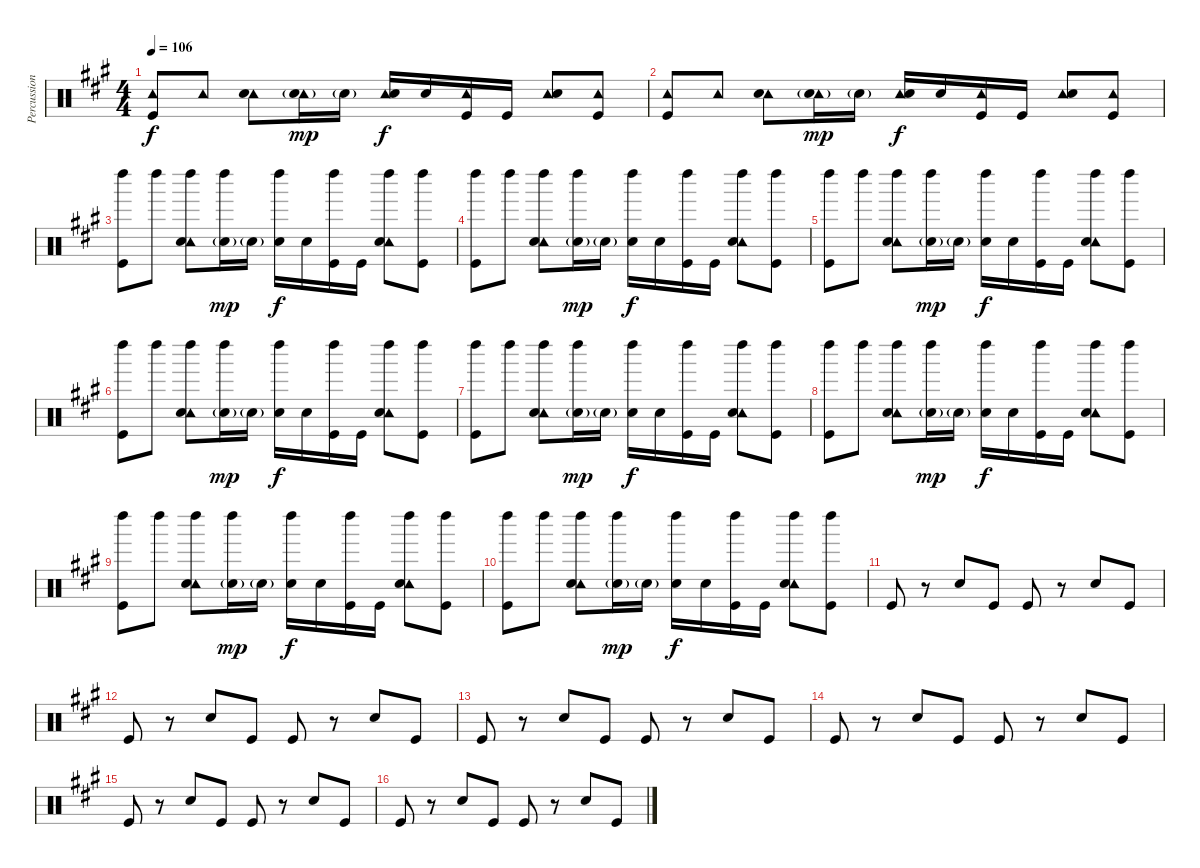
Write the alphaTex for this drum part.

\track ("Percussion" "Percussion") {instrument percussion}
\staff {score}
\articulation defaults
\ts (4 4)
\tempo 106
\clef neutral
\ks f#minor
("Tambourine (hit)" "Kick (hit)").8{dy f} "Tambourine (hit)".8 ("Tambourine (hit)" "Snare (hit) 2").8 ("Tambourine (hit)" "Snare (hit) 2"{g}).16{dy mp} "Snare (hit) 2"{g}.16 ("Tambourine (hit)" "Snare (hit) 2").16{dy f} "Snare (hit) 2".16 ("Tambourine (hit)" "Kick (hit)").16 "Kick (hit)".16 ("Tambourine (hit)" "Snare (hit) 2").8 ("Tambourine (hit)" "Kick (hit)").8 |
("Tambourine (hit)" "Kick (hit)").8 "Tambourine (hit)".8 ("Tambourine (hit)" "Snare (hit) 2").8 ("Tambourine (hit)" "Snare (hit) 2"{g}).16{dy mp} "Snare (hit) 2"{g}.16 ("Tambourine (hit)" "Snare (hit) 2").16{dy f} "Snare (hit) 2".16 ("Tambourine (hit)" "Kick (hit)").16 "Kick (hit)".16 ("Tambourine (hit)" "Snare (hit) 2").8 ("Tambourine (hit)" "Kick (hit)").8 |
("Left Maraca (hit)" "Kick (hit)").8 "Left Maraca (hit)".8 ("Tambourine (hit)" "Left Maraca (hit)" "Snare (hit) 2").8 ("Left Maraca (hit)" "Snare (hit) 2"{g}).16{dy mp} "Snare (hit) 2"{g}.16 ("Left Maraca (hit)" "Snare (hit) 2").16{dy f} "Snare (hit) 2".16 ("Left Maraca (hit)" "Kick (hit)").16 "Kick (hit)".16 ("Tambourine (hit)" "Left Maraca (hit)" "Snare (hit) 2").8 ("Left Maraca (hit)" "Kick (hit)").8 |
("Left Maraca (hit)" "Kick (hit)").8 "Left Maraca (hit)".8 ("Tambourine (hit)" "Left Maraca (hit)" "Snare (hit) 2").8 ("Left Maraca (hit)" "Snare (hit) 2"{g}).16{dy mp} "Snare (hit) 2"{g}.16 ("Left Maraca (hit)" "Snare (hit) 2").16{dy f} "Snare (hit) 2".16 ("Left Maraca (hit)" "Kick (hit)").16 "Kick (hit)".16 ("Tambourine (hit)" "Left Maraca (hit)" "Snare (hit) 2").8 ("Left Maraca (hit)" "Kick (hit)").8 |
("Left Maraca (hit)" "Kick (hit)").8 "Left Maraca (hit)".8 ("Tambourine (hit)" "Left Maraca (hit)" "Snare (hit) 2").8 ("Left Maraca (hit)" "Snare (hit) 2"{g}).16{dy mp} "Snare (hit) 2"{g}.16 ("Left Maraca (hit)" "Snare (hit) 2").16{dy f} "Snare (hit) 2".16 ("Left Maraca (hit)" "Kick (hit)").16 "Kick (hit)".16 ("Tambourine (hit)" "Left Maraca (hit)" "Snare (hit) 2").8 ("Left Maraca (hit)" "Kick (hit)").8 |
("Left Maraca (hit)" "Kick (hit)").8 "Left Maraca (hit)".8 ("Tambourine (hit)" "Left Maraca (hit)" "Snare (hit) 2").8 ("Left Maraca (hit)" "Snare (hit) 2"{g}).16{dy mp} "Snare (hit) 2"{g}.16 ("Left Maraca (hit)" "Snare (hit) 2").16{dy f} "Snare (hit) 2".16 ("Left Maraca (hit)" "Kick (hit)").16 "Kick (hit)".16 ("Tambourine (hit)" "Left Maraca (hit)" "Snare (hit) 2").8 ("Left Maraca (hit)" "Kick (hit)").8 |
("Left Maraca (hit)" "Kick (hit)").8 "Left Maraca (hit)".8 ("Tambourine (hit)" "Left Maraca (hit)" "Snare (hit) 2").8 ("Left Maraca (hit)" "Snare (hit) 2"{g}).16{dy mp} "Snare (hit) 2"{g}.16 ("Left Maraca (hit)" "Snare (hit) 2").16{dy f} "Snare (hit) 2".16 ("Left Maraca (hit)" "Kick (hit)").16 "Kick (hit)".16 ("Tambourine (hit)" "Left Maraca (hit)" "Snare (hit) 2").8 ("Left Maraca (hit)" "Kick (hit)").8 |
("Left Maraca (hit)" "Kick (hit)").8 "Left Maraca (hit)".8 ("Tambourine (hit)" "Left Maraca (hit)" "Snare (hit) 2").8 ("Left Maraca (hit)" "Snare (hit) 2"{g}).16{dy mp} "Snare (hit) 2"{g}.16 ("Left Maraca (hit)" "Snare (hit) 2").16{dy f} "Snare (hit) 2".16 ("Left Maraca (hit)" "Kick (hit)").16 "Kick (hit)".16 ("Tambourine (hit)" "Left Maraca (hit)" "Snare (hit) 2").8 ("Left Maraca (hit)" "Kick (hit)").8 |
("Left Maraca (hit)" "Kick (hit)").8 "Left Maraca (hit)".8 ("Tambourine (hit)" "Left Maraca (hit)" "Snare (hit) 2").8 ("Left Maraca (hit)" "Snare (hit) 2"{g}).16{dy mp} "Snare (hit) 2"{g}.16 ("Left Maraca (hit)" "Snare (hit) 2").16{dy f} "Snare (hit) 2".16 ("Left Maraca (hit)" "Kick (hit)").16 "Kick (hit)".16 ("Tambourine (hit)" "Left Maraca (hit)" "Snare (hit) 2").8 ("Left Maraca (hit)" "Kick (hit)").8 |
("Left Maraca (hit)" "Kick (hit)").8 "Left Maraca (hit)".8 ("Tambourine (hit)" "Left Maraca (hit)" "Snare (hit) 2").8 ("Left Maraca (hit)" "Snare (hit) 2"{g}).16{dy mp} "Snare (hit) 2"{g}.16 ("Left Maraca (hit)" "Snare (hit) 2").16{dy f} "Snare (hit) 2".16 ("Left Maraca (hit)" "Kick (hit)").16 "Kick (hit)".16 ("Tambourine (hit)" "Left Maraca (hit)" "Snare (hit) 2").8 ("Left Maraca (hit)" "Kick (hit)").8 |
"Kick (hit)".8 r.8 "Snare (hit) 2".8 "Kick (hit)".8 "Kick (hit)".8 r.8 "Snare (hit) 2".8 "Kick (hit)".8 |
"Kick (hit)".8 r.8 "Snare (hit) 2".8 "Kick (hit)".8 "Kick (hit)".8 r.8 "Snare (hit) 2".8 "Kick (hit)".8 |
"Kick (hit)".8 r.8 "Snare (hit) 2".8 "Kick (hit)".8 "Kick (hit)".8 r.8 "Snare (hit) 2".8 "Kick (hit)".8 |
"Kick (hit)".8 r.8 "Snare (hit) 2".8 "Kick (hit)".8 "Kick (hit)".8 r.8 "Snare (hit) 2".8 "Kick (hit)".8 |
"Kick (hit)".8 r.8 "Snare (hit) 2".8 "Kick (hit)".8 "Kick (hit)".8 r.8 "Snare (hit) 2".8 "Kick (hit)".8 |
"Kick (hit)".8 r.8 "Snare (hit) 2".8 "Kick (hit)".8 "Kick (hit)".8 r.8 "Snare (hit) 2".8 "Kick (hit)".8
